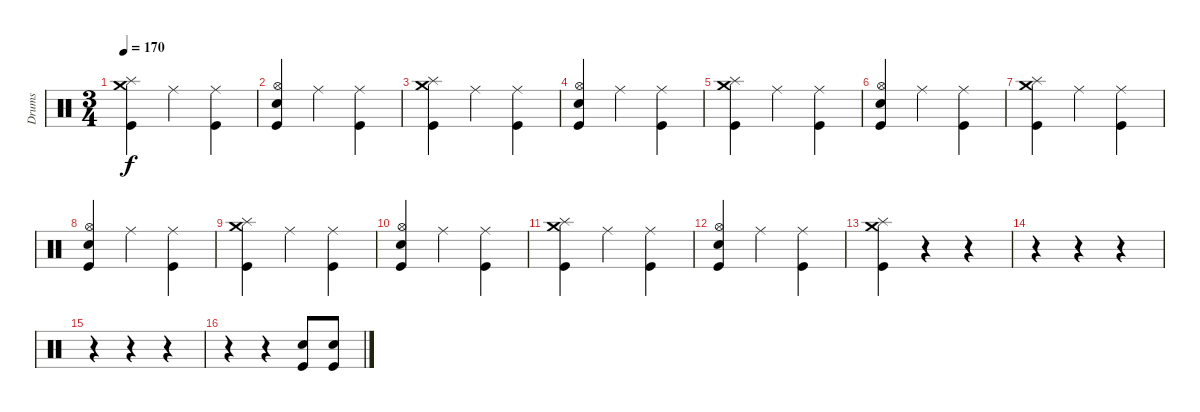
\track ("Drums" "Drums") {instrument percussion}
\staff {score}
\articulation defaults
\ts (3 4)
\tempo 170
\clef neutral
\ks c
("Splash (hit)" "Crash medium (hit)" "Kick (hit)").4{dy f} "Ride (middle)".4 ("Ride (middle)" "Kick (hit)").4 |
("Hi-Hat (open)" "Electric Snare (hit)" "Kick (hit)").4 "Ride (middle)".4 ("Ride (middle)" "Kick (hit)").4 |
("Splash (hit)" "Crash medium (hit)" "Kick (hit)").4 "Ride (middle)".4 ("Ride (middle)" "Kick (hit)").4 |
("Hi-Hat (open)" "Electric Snare (hit)" "Kick (hit)").4 "Ride (middle)".4 ("Ride (middle)" "Kick (hit)").4 |
("Splash (hit)" "Crash medium (hit)" "Kick (hit)").4 "Ride (middle)".4 ("Ride (middle)" "Kick (hit)").4 |
("Hi-Hat (open)" "Electric Snare (hit)" "Kick (hit)").4 "Ride (middle)".4 ("Ride (middle)" "Kick (hit)").4 |
("Splash (hit)" "Crash medium (hit)" "Kick (hit)").4 "Ride (middle)".4 ("Ride (middle)" "Kick (hit)").4 |
("Hi-Hat (open)" "Electric Snare (hit)" "Kick (hit)").4 "Ride (middle)".4 ("Ride (middle)" "Kick (hit)").4 |
("Splash (hit)" "Crash medium (hit)" "Kick (hit)").4 "Ride (middle)".4 ("Ride (middle)" "Kick (hit)").4 |
("Hi-Hat (open)" "Electric Snare (hit)" "Kick (hit)").4 "Ride (middle)".4 ("Ride (middle)" "Kick (hit)").4 |
("Splash (hit)" "Crash medium (hit)" "Kick (hit)").4 "Ride (middle)".4 ("Ride (middle)" "Kick (hit)").4 |
("Hi-Hat (open)" "Electric Snare (hit)" "Kick (hit)").4 "Ride (middle)".4 ("Ride (middle)" "Kick (hit)").4 |
("Splash (hit)" "Crash medium (hit)" "Kick (hit)").4 r.4 r.4 |
r.4 r.4 r.4 |
r.4 r.4 r.4 |
r.4 r.4 ("Electric Snare (hit)" "Kick (hit)").8 ("Electric Snare (hit)" "Kick (hit)").8
